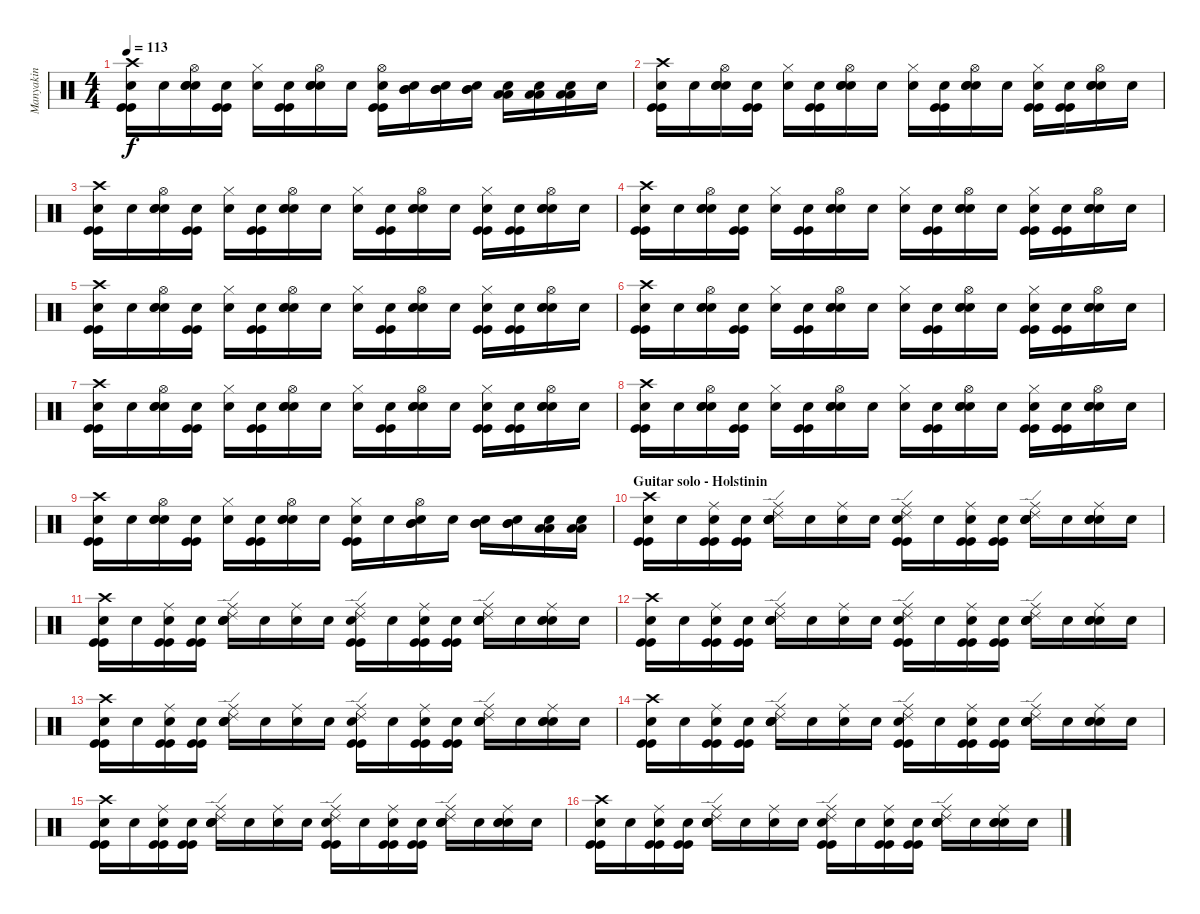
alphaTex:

\track ("Manyakin" "Manyakin") {instrument percussion}
\staff {score}
\articulation defaults
\ts (4 4)
\tempo 113
\clef neutral
\ks c
("Crash high (hit)" "Kick (hit)" "Kick (hit)" "Snare (hit)"{x}).16{dy f} "Snare (hit)"{x}.16 ("Hi-Hat (open)" "Electric Snare (hit)" "Electric Snare (hit)" "Snare (hit)"{x}).16 ("Kick (hit)" "Kick (hit)" "Snare (hit)"{x}).16 ("Hi-Hat (closed)" "Snare (hit)"{x}).16 ("Kick (hit)" "Kick (hit)" "Snare (hit)"{x}).16 ("Hi-Hat (open)" "Electric Snare (hit)" "Electric Snare (hit)" "Snare (hit)"{x}).16 "Snare (hit)"{x}.16 ("Hi-Hat (open)" "Kick (hit)" "Kick (hit)" "Snare (hit)"{x}).16 ("Mid Tom (hit)" "Mid Tom (hit)" "Snare (hit)"{x}).16 ("Mid Tom (hit)" "Mid Tom (hit)" "Snare (hit)"{x}).16 ("Mid Tom (hit)" "Mid Tom (hit)" "Snare (hit)"{x}).16 ("Low Tom (hit)" "Low Tom (hit)" "Snare (hit)"{x}).16 ("Low Tom (hit)" "Low Tom (hit)" "Snare (hit)"{x}).16 ("Low Tom (hit)" "Low Tom (hit)" "Snare (hit)"{x}).16 "Snare (hit)"{x}.16 |
("Crash high (hit)" "Kick (hit)" "Kick (hit)" "Snare (hit)"{x}).16 "Snare (hit)"{x}.16 ("Hi-Hat (open)" "Electric Snare (hit)" "Electric Snare (hit)" "Snare (hit)"{x}).16 ("Kick (hit)" "Kick (hit)" "Snare (hit)"{x}).16 ("Hi-Hat (closed)" "Snare (hit)"{x}).16 ("Kick (hit)" "Kick (hit)" "Snare (hit)"{x}).16 ("Hi-Hat (open)" "Electric Snare (hit)" "Electric Snare (hit)" "Snare (hit)"{x}).16 "Snare (hit)"{x}.16 ("Hi-Hat (closed)" "Snare (hit)"{x}).16 ("Kick (hit)" "Kick (hit)" "Snare (hit)"{x}).16 ("Hi-Hat (open)" "Electric Snare (hit)" "Electric Snare (hit)" "Snare (hit)"{x}).16 "Snare (hit)"{x}.16 ("Hi-Hat (closed)" "Kick (hit)" "Kick (hit)" "Snare (hit)"{x}).16 ("Kick (hit)" "Kick (hit)" "Snare (hit)"{x}).16 ("Hi-Hat (open)" "Electric Snare (hit)" "Electric Snare (hit)" "Snare (hit)"{x}).16 "Snare (hit)"{x}.16 |
("Crash high (hit)" "Kick (hit)" "Kick (hit)" "Snare (hit)"{x}).16 "Snare (hit)"{x}.16 ("Hi-Hat (open)" "Electric Snare (hit)" "Electric Snare (hit)" "Snare (hit)"{x}).16 ("Kick (hit)" "Kick (hit)" "Snare (hit)"{x}).16 ("Hi-Hat (closed)" "Snare (hit)"{x}).16 ("Kick (hit)" "Kick (hit)" "Snare (hit)"{x}).16 ("Hi-Hat (open)" "Electric Snare (hit)" "Electric Snare (hit)" "Snare (hit)"{x}).16 "Snare (hit)"{x}.16 ("Hi-Hat (closed)" "Snare (hit)"{x}).16 ("Kick (hit)" "Kick (hit)" "Snare (hit)"{x}).16 ("Hi-Hat (open)" "Electric Snare (hit)" "Electric Snare (hit)" "Snare (hit)"{x}).16 "Snare (hit)"{x}.16 ("Hi-Hat (closed)" "Kick (hit)" "Kick (hit)" "Snare (hit)"{x}).16 ("Kick (hit)" "Kick (hit)" "Snare (hit)"{x}).16 ("Hi-Hat (open)" "Electric Snare (hit)" "Electric Snare (hit)" "Snare (hit)"{x}).16 "Snare (hit)"{x}.16 |
("Crash high (hit)" "Kick (hit)" "Kick (hit)" "Snare (hit)"{x}).16 "Snare (hit)"{x}.16 ("Hi-Hat (open)" "Electric Snare (hit)" "Electric Snare (hit)" "Snare (hit)"{x}).16 ("Kick (hit)" "Kick (hit)" "Snare (hit)"{x}).16 ("Hi-Hat (closed)" "Snare (hit)"{x}).16 ("Kick (hit)" "Kick (hit)" "Snare (hit)"{x}).16 ("Hi-Hat (open)" "Electric Snare (hit)" "Electric Snare (hit)" "Snare (hit)"{x}).16 "Snare (hit)"{x}.16 ("Hi-Hat (closed)" "Snare (hit)"{x}).16 ("Kick (hit)" "Kick (hit)" "Snare (hit)"{x}).16 ("Hi-Hat (open)" "Electric Snare (hit)" "Electric Snare (hit)" "Snare (hit)"{x}).16 "Snare (hit)"{x}.16 ("Hi-Hat (closed)" "Kick (hit)" "Kick (hit)" "Snare (hit)"{x}).16 ("Kick (hit)" "Kick (hit)" "Snare (hit)"{x}).16 ("Hi-Hat (open)" "Electric Snare (hit)" "Electric Snare (hit)" "Snare (hit)"{x}).16 "Snare (hit)"{x}.16 |
("Crash high (hit)" "Kick (hit)" "Kick (hit)" "Snare (hit)"{x}).16 "Snare (hit)"{x}.16 ("Hi-Hat (open)" "Electric Snare (hit)" "Electric Snare (hit)" "Snare (hit)"{x}).16 ("Kick (hit)" "Kick (hit)" "Snare (hit)"{x}).16 ("Hi-Hat (closed)" "Snare (hit)"{x}).16 ("Kick (hit)" "Kick (hit)" "Snare (hit)"{x}).16 ("Hi-Hat (open)" "Electric Snare (hit)" "Electric Snare (hit)" "Snare (hit)"{x}).16 "Snare (hit)"{x}.16 ("Hi-Hat (closed)" "Snare (hit)"{x}).16 ("Kick (hit)" "Kick (hit)" "Snare (hit)"{x}).16 ("Hi-Hat (open)" "Electric Snare (hit)" "Electric Snare (hit)" "Snare (hit)"{x}).16 "Snare (hit)"{x}.16 ("Hi-Hat (closed)" "Kick (hit)" "Kick (hit)" "Snare (hit)"{x}).16 ("Kick (hit)" "Kick (hit)" "Snare (hit)"{x}).16 ("Hi-Hat (open)" "Electric Snare (hit)" "Electric Snare (hit)" "Snare (hit)"{x}).16 "Snare (hit)"{x}.16 |
("Crash high (hit)" "Kick (hit)" "Kick (hit)" "Snare (hit)"{x}).16 "Snare (hit)"{x}.16 ("Hi-Hat (open)" "Electric Snare (hit)" "Electric Snare (hit)" "Snare (hit)"{x}).16 ("Kick (hit)" "Kick (hit)" "Snare (hit)"{x}).16 ("Hi-Hat (closed)" "Snare (hit)"{x}).16 ("Kick (hit)" "Kick (hit)" "Snare (hit)"{x}).16 ("Hi-Hat (open)" "Electric Snare (hit)" "Electric Snare (hit)" "Snare (hit)"{x}).16 "Snare (hit)"{x}.16 ("Hi-Hat (closed)" "Snare (hit)"{x}).16 ("Kick (hit)" "Kick (hit)" "Snare (hit)"{x}).16 ("Hi-Hat (open)" "Electric Snare (hit)" "Electric Snare (hit)" "Snare (hit)"{x}).16 "Snare (hit)"{x}.16 ("Hi-Hat (closed)" "Kick (hit)" "Kick (hit)" "Snare (hit)"{x}).16 ("Kick (hit)" "Kick (hit)" "Snare (hit)"{x}).16 ("Hi-Hat (open)" "Electric Snare (hit)" "Electric Snare (hit)" "Snare (hit)"{x}).16 "Snare (hit)"{x}.16 |
("Crash high (hit)" "Kick (hit)" "Kick (hit)" "Snare (hit)"{x}).16 "Snare (hit)"{x}.16 ("Hi-Hat (open)" "Electric Snare (hit)" "Electric Snare (hit)" "Snare (hit)"{x}).16 ("Kick (hit)" "Kick (hit)" "Snare (hit)"{x}).16 ("Hi-Hat (closed)" "Snare (hit)"{x}).16 ("Kick (hit)" "Kick (hit)" "Snare (hit)"{x}).16 ("Hi-Hat (open)" "Electric Snare (hit)" "Electric Snare (hit)" "Snare (hit)"{x}).16 "Snare (hit)"{x}.16 ("Hi-Hat (closed)" "Snare (hit)"{x}).16 ("Kick (hit)" "Kick (hit)" "Snare (hit)"{x}).16 ("Hi-Hat (open)" "Electric Snare (hit)" "Electric Snare (hit)" "Snare (hit)"{x}).16 "Snare (hit)"{x}.16 ("Hi-Hat (closed)" "Kick (hit)" "Kick (hit)" "Snare (hit)"{x}).16 ("Kick (hit)" "Kick (hit)" "Snare (hit)"{x}).16 ("Hi-Hat (open)" "Electric Snare (hit)" "Electric Snare (hit)" "Snare (hit)"{x}).16 "Snare (hit)"{x}.16 |
("Crash high (hit)" "Kick (hit)" "Kick (hit)" "Snare (hit)"{x}).16 "Snare (hit)"{x}.16 ("Hi-Hat (open)" "Electric Snare (hit)" "Electric Snare (hit)" "Snare (hit)"{x}).16 ("Kick (hit)" "Kick (hit)" "Snare (hit)"{x}).16 ("Hi-Hat (closed)" "Snare (hit)"{x}).16 ("Kick (hit)" "Kick (hit)" "Snare (hit)"{x}).16 ("Hi-Hat (open)" "Electric Snare (hit)" "Electric Snare (hit)" "Snare (hit)"{x}).16 "Snare (hit)"{x}.16 ("Hi-Hat (closed)" "Snare (hit)"{x}).16 ("Kick (hit)" "Kick (hit)" "Snare (hit)"{x}).16 ("Hi-Hat (open)" "Electric Snare (hit)" "Electric Snare (hit)" "Snare (hit)"{x}).16 "Snare (hit)"{x}.16 ("Hi-Hat (closed)" "Kick (hit)" "Kick (hit)" "Snare (hit)"{x}).16 ("Kick (hit)" "Kick (hit)" "Snare (hit)"{x}).16 ("Hi-Hat (open)" "Electric Snare (hit)" "Electric Snare (hit)" "Snare (hit)"{x}).16 "Snare (hit)"{x}.16 |
("Crash high (hit)" "Kick (hit)" "Kick (hit)" "Snare (hit)"{x}).16 "Snare (hit)"{x}.16 ("Hi-Hat (open)" "Electric Snare (hit)" "Electric Snare (hit)" "Snare (hit)"{x}).16 ("Kick (hit)" "Kick (hit)" "Snare (hit)"{x}).16 ("Hi-Hat (closed)" "Snare (hit)"{x}).16 ("Kick (hit)" "Kick (hit)" "Snare (hit)"{x}).16 ("Hi-Hat (open)" "Electric Snare (hit)" "Electric Snare (hit)" "Snare (hit)"{x}).16 "Snare (hit)"{x}.16 ("Hi-Hat (closed)" "Kick (hit)" "Kick (hit)" "Snare (hit)"{x}).16 "Snare (hit)"{x}.16 ("Hi-Hat (open)" "Mid Tom (hit)" "Mid Tom (hit)" "Snare (hit)"{x}).16 "Snare (hit)"{x}.16 ("Mid Tom (hit)" "Mid Tom (hit)" "Snare (hit)"{x}).16 ("Mid Tom (hit)" "Mid Tom (hit)" "Snare (hit)"{x}).16 ("Low Tom (hit)" "Low Tom (hit)" "Snare (hit)"{x}).16 ("Low Tom (hit)" "Low Tom (hit)" "Snare (hit)"{x}).16 |
\section ("" "Guitar solo - Holstinin")
("Crash high (hit)" "Kick (hit)" "Kick (hit)" "Snare (hit)"{x}).16 "Snare (hit)"{x}.16 ("Ride (middle)" "Kick (hit)" "Kick (hit)" "Snare (hit)"{x}).16 ("Kick (hit)" "Kick (hit)" "Snare (hit)"{x}).16 ("Ride (middle)" "Ride (edge) 2" "Electric Snare (hit)" "Electric Snare (hit)" "Snare (hit)"{x}).16 "Snare (hit)"{x}.16 ("Ride (middle)" "Snare (hit)"{x}).16 "Snare (hit)"{x}.16 ("Ride (middle)" "Ride (edge) 2" "Kick (hit)" "Kick (hit)" "Snare (hit)"{x}).16 "Snare (hit)"{x}.16 ("Ride (middle)" "Kick (hit)" "Kick (hit)" "Snare (hit)"{x}).16 ("Kick (hit)" "Kick (hit)" "Snare (hit)"{x}).16 ("Ride (middle)" "Ride (edge) 2" "Electric Snare (hit)" "Electric Snare (hit)" "Snare (hit)"{x}).16 "Snare (hit)"{x}.16 ("Ride (middle)" "Electric Snare (hit)" "Electric Snare (hit)" "Snare (hit)"{x}).16 "Snare (hit)"{x}.16 |
("Crash high (hit)" "Kick (hit)" "Kick (hit)" "Snare (hit)"{x}).16 "Snare (hit)"{x}.16 ("Ride (middle)" "Kick (hit)" "Kick (hit)" "Snare (hit)"{x}).16 ("Kick (hit)" "Kick (hit)" "Snare (hit)"{x}).16 ("Ride (middle)" "Ride (edge) 2" "Electric Snare (hit)" "Electric Snare (hit)" "Snare (hit)"{x}).16 "Snare (hit)"{x}.16 ("Ride (middle)" "Snare (hit)"{x}).16 "Snare (hit)"{x}.16 ("Ride (middle)" "Ride (edge) 2" "Kick (hit)" "Kick (hit)" "Snare (hit)"{x}).16 "Snare (hit)"{x}.16 ("Ride (middle)" "Kick (hit)" "Kick (hit)" "Snare (hit)"{x}).16 ("Kick (hit)" "Kick (hit)" "Snare (hit)"{x}).16 ("Ride (middle)" "Ride (edge) 2" "Electric Snare (hit)" "Electric Snare (hit)" "Snare (hit)"{x}).16 "Snare (hit)"{x}.16 ("Ride (middle)" "Electric Snare (hit)" "Electric Snare (hit)" "Snare (hit)"{x}).16 "Snare (hit)"{x}.16 |
("Crash high (hit)" "Kick (hit)" "Kick (hit)" "Snare (hit)"{x}).16 "Snare (hit)"{x}.16 ("Ride (middle)" "Kick (hit)" "Kick (hit)" "Snare (hit)"{x}).16 ("Kick (hit)" "Kick (hit)" "Snare (hit)"{x}).16 ("Ride (middle)" "Ride (edge) 2" "Electric Snare (hit)" "Electric Snare (hit)" "Snare (hit)"{x}).16 "Snare (hit)"{x}.16 ("Ride (middle)" "Snare (hit)"{x}).16 "Snare (hit)"{x}.16 ("Ride (middle)" "Ride (edge) 2" "Kick (hit)" "Kick (hit)" "Snare (hit)"{x}).16 "Snare (hit)"{x}.16 ("Ride (middle)" "Kick (hit)" "Kick (hit)" "Snare (hit)"{x}).16 ("Kick (hit)" "Kick (hit)" "Snare (hit)"{x}).16 ("Ride (middle)" "Ride (edge) 2" "Electric Snare (hit)" "Electric Snare (hit)" "Snare (hit)"{x}).16 "Snare (hit)"{x}.16 ("Ride (middle)" "Electric Snare (hit)" "Electric Snare (hit)" "Snare (hit)"{x}).16 "Snare (hit)"{x}.16 |
("Crash high (hit)" "Kick (hit)" "Kick (hit)" "Snare (hit)"{x}).16 "Snare (hit)"{x}.16 ("Ride (middle)" "Kick (hit)" "Kick (hit)" "Snare (hit)"{x}).16 ("Kick (hit)" "Kick (hit)" "Snare (hit)"{x}).16 ("Ride (middle)" "Ride (edge) 2" "Electric Snare (hit)" "Electric Snare (hit)" "Snare (hit)"{x}).16 "Snare (hit)"{x}.16 ("Ride (middle)" "Snare (hit)"{x}).16 "Snare (hit)"{x}.16 ("Ride (middle)" "Ride (edge) 2" "Kick (hit)" "Kick (hit)" "Snare (hit)"{x}).16 "Snare (hit)"{x}.16 ("Ride (middle)" "Kick (hit)" "Kick (hit)" "Snare (hit)"{x}).16 ("Kick (hit)" "Kick (hit)" "Snare (hit)"{x}).16 ("Ride (middle)" "Ride (edge) 2" "Electric Snare (hit)" "Electric Snare (hit)" "Snare (hit)"{x}).16 "Snare (hit)"{x}.16 ("Ride (middle)" "Electric Snare (hit)" "Electric Snare (hit)" "Snare (hit)"{x}).16 "Snare (hit)"{x}.16 |
("Crash high (hit)" "Kick (hit)" "Kick (hit)" "Snare (hit)"{x}).16 "Snare (hit)"{x}.16 ("Ride (middle)" "Kick (hit)" "Kick (hit)" "Snare (hit)"{x}).16 ("Kick (hit)" "Kick (hit)" "Snare (hit)"{x}).16 ("Ride (middle)" "Ride (edge) 2" "Electric Snare (hit)" "Electric Snare (hit)" "Snare (hit)"{x}).16 "Snare (hit)"{x}.16 ("Ride (middle)" "Snare (hit)"{x}).16 "Snare (hit)"{x}.16 ("Ride (middle)" "Ride (edge) 2" "Kick (hit)" "Kick (hit)" "Snare (hit)"{x}).16 "Snare (hit)"{x}.16 ("Ride (middle)" "Kick (hit)" "Kick (hit)" "Snare (hit)"{x}).16 ("Kick (hit)" "Kick (hit)" "Snare (hit)"{x}).16 ("Ride (middle)" "Ride (edge) 2" "Electric Snare (hit)" "Electric Snare (hit)" "Snare (hit)"{x}).16 "Snare (hit)"{x}.16 ("Ride (middle)" "Electric Snare (hit)" "Electric Snare (hit)" "Snare (hit)"{x}).16 "Snare (hit)"{x}.16 |
("Crash high (hit)" "Kick (hit)" "Kick (hit)" "Snare (hit)"{x}).16 "Snare (hit)"{x}.16 ("Ride (middle)" "Kick (hit)" "Kick (hit)" "Snare (hit)"{x}).16 ("Kick (hit)" "Kick (hit)" "Snare (hit)"{x}).16 ("Ride (middle)" "Ride (edge) 2" "Electric Snare (hit)" "Electric Snare (hit)" "Snare (hit)"{x}).16 "Snare (hit)"{x}.16 ("Ride (middle)" "Snare (hit)"{x}).16 "Snare (hit)"{x}.16 ("Ride (middle)" "Ride (edge) 2" "Kick (hit)" "Kick (hit)" "Snare (hit)"{x}).16 "Snare (hit)"{x}.16 ("Ride (middle)" "Kick (hit)" "Kick (hit)" "Snare (hit)"{x}).16 ("Kick (hit)" "Kick (hit)" "Snare (hit)"{x}).16 ("Ride (middle)" "Ride (edge) 2" "Electric Snare (hit)" "Electric Snare (hit)" "Snare (hit)"{x}).16 "Snare (hit)"{x}.16 ("Ride (middle)" "Electric Snare (hit)" "Electric Snare (hit)" "Snare (hit)"{x}).16 "Snare (hit)"{x}.16 |
("Crash high (hit)" "Kick (hit)" "Kick (hit)" "Snare (hit)"{x}).16 "Snare (hit)"{x}.16 ("Ride (middle)" "Kick (hit)" "Kick (hit)" "Snare (hit)"{x}).16 ("Kick (hit)" "Kick (hit)" "Snare (hit)"{x}).16 ("Ride (middle)" "Ride (edge) 2" "Electric Snare (hit)" "Electric Snare (hit)" "Snare (hit)"{x}).16 "Snare (hit)"{x}.16 ("Ride (middle)" "Snare (hit)"{x}).16 "Snare (hit)"{x}.16 ("Ride (middle)" "Ride (edge) 2" "Kick (hit)" "Kick (hit)" "Snare (hit)"{x}).16 "Snare (hit)"{x}.16 ("Ride (middle)" "Kick (hit)" "Kick (hit)" "Snare (hit)"{x}).16 ("Kick (hit)" "Kick (hit)" "Snare (hit)"{x}).16 ("Ride (middle)" "Ride (edge) 2" "Electric Snare (hit)" "Electric Snare (hit)" "Snare (hit)"{x}).16 "Snare (hit)"{x}.16 ("Ride (middle)" "Electric Snare (hit)" "Electric Snare (hit)" "Snare (hit)"{x}).16 "Snare (hit)"{x}.16
